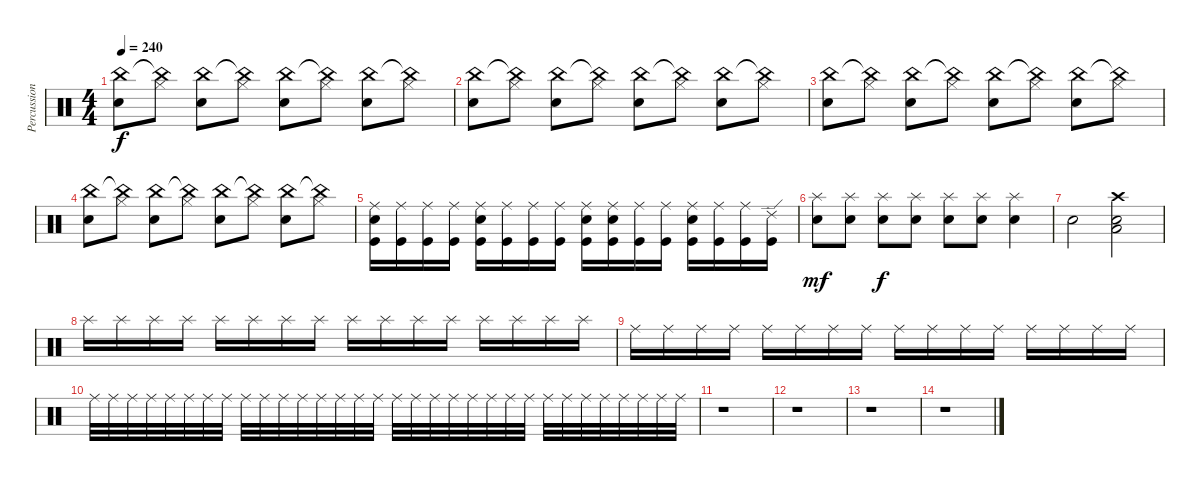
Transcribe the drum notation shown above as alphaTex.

\track ("Percussion" "Percussion") {instrument percussion}
\staff {score}
\articulation defaults
\ts (4 4)
\tempo 240
\clef neutral
\ks c
("China (hit)" "Electric Snare (hit)").8{dy f} ("China (hit)"{t} "Hi-Hat (closed)").8 ("China (hit)" "Electric Snare (hit)").8 ("China (hit)"{t} "Hi-Hat (closed)").8 ("China (hit)" "Electric Snare (hit)").8 ("China (hit)"{t} "Hi-Hat (closed)").8 ("China (hit)" "Electric Snare (hit)").8 ("China (hit)"{t} "Hi-Hat (closed)").8 |
("China (hit)" "Electric Snare (hit)").8 ("China (hit)"{t} "Hi-Hat (closed)").8 ("China (hit)" "Electric Snare (hit)").8 ("China (hit)"{t} "Hi-Hat (closed)").8 ("China (hit)" "Electric Snare (hit)").8 ("China (hit)"{t} "Hi-Hat (closed)").8 ("China (hit)" "Electric Snare (hit)").8 ("China (hit)"{t} "Hi-Hat (closed)").8 |
("China (hit)" "Electric Snare (hit)").8 ("China (hit)"{t} "Hi-Hat (closed)").8 ("China (hit)" "Electric Snare (hit)").8 ("China (hit)"{t} "Hi-Hat (closed)").8 ("China (hit)" "Electric Snare (hit)").8 ("China (hit)"{t} "Hi-Hat (closed)").8 ("China (hit)" "Electric Snare (hit)").8 ("China (hit)"{t} "Hi-Hat (closed)").8 |
("China (hit)" "Electric Snare (hit)").8 ("China (hit)"{t} "Hi-Hat (closed)").8 ("China (hit)" "Electric Snare (hit)").8 ("China (hit)"{t} "Hi-Hat (closed)").8 ("China (hit)" "Electric Snare (hit)").8 ("China (hit)"{t} "Hi-Hat (closed)").8 ("China (hit)" "Electric Snare (hit)").8 ("China (hit)"{t} "Hi-Hat (closed)").8 |
("Ride (middle)" "Electric Snare (hit)" "Kick (hit)").16 ("Ride (middle)" "Kick (hit)").16 ("Ride (middle)" "Kick (hit)").16 ("Ride (middle)" "Kick (hit)").16 ("Ride (middle)" "Electric Snare (hit)" "Kick (hit)").16 ("Ride (middle)" "Kick (hit)").16 ("Ride (middle)" "Kick (hit)").16 ("Ride (middle)" "Kick (hit)").16 ("Ride (middle)" "Electric Snare (hit)" "Kick (hit)").16 ("Ride (middle)" "Snare (hit)" "Kick (hit)").16 ("Ride (middle)" "Kick (hit)").16 ("Ride (middle)" "Kick (hit)").16 ("Ride (middle)" "Electric Snare (hit)" "Kick (hit)").16 ("Ride (middle)" "Kick (hit)").16 ("Ride (middle)" "Kick (hit)").16 ("Ride (edge) 2" "Kick (hit)").16 |
("Splash (hit)" "Electric Snare (hit)").8{dy mf} ("Splash (hit)" "Electric Snare (hit)").8 ("Splash (hit)" "Electric Snare (hit)").8{dy f} ("Splash (hit)" "Electric Snare (hit)").8 ("Splash (hit)" "Electric Snare (hit)").8 ("Splash (hit)" "Electric Snare (hit)").8 ("Splash (hit)" "Electric Snare (hit)").4 |
"Snare (hit) 2".2 ("Low Tom (hit)" "Crash high (hit)" "Snare (hit) 2").2 |
"Splash (hit)".16 "Splash (hit)".16 "Splash (hit)".16 "Splash (hit)".16 "Splash (hit)".16 "Splash (hit)".16 "Splash (hit)".16 "Splash (hit)".16 "Splash (hit)".16 "Splash (hit)".16 "Splash (hit)".16 "Splash (hit)".16 "Splash (hit)".16 "Splash (hit)".16 "Splash (hit)".16 "Splash (hit)".16 |
"Ride (middle)".16 "Ride (middle)".16 "Ride (middle)".16 "Ride (middle)".16 "Ride (middle)".16 "Ride (middle)".16 "Ride (middle)".16 "Ride (middle)".16 "Ride (middle)".16 "Ride (middle)".16 "Ride (middle)".16 "Ride (middle)".16{volume 9} "Ride (middle)".16 "Ride (middle)".16 "Ride (middle)".16 "Ride (middle)".16 |
"Ride (middle)".32 "Ride (middle)".32 "Ride (middle)".32 "Ride (middle)".32 "Ride (middle)".32 "Ride (middle)".32 "Ride (middle)".32 "Ride (middle)".32 "Ride (middle)".32 "Ride (middle)".32 "Ride (middle)".32 "Ride (middle)".32 "Ride (middle)".32 "Ride (middle)".32 "Ride (middle)".32 "Ride (middle)".32 "Ride (middle)".32 "Ride (middle)".32 "Ride (middle)".32 "Ride (middle)".32 "Ride (middle)".32 "Ride (middle)".32 "Ride (middle)".32 "Ride (middle)".32 "Ride (middle)".32 "Ride (middle)".32 "Ride (middle)".32 "Ride (middle)".32 "Ride (middle)".32 "Ride (middle)".32 "Ride (middle)".32 "Ride (middle)".32 |
r.1 |
r.1 |
r.1 |
r.1
